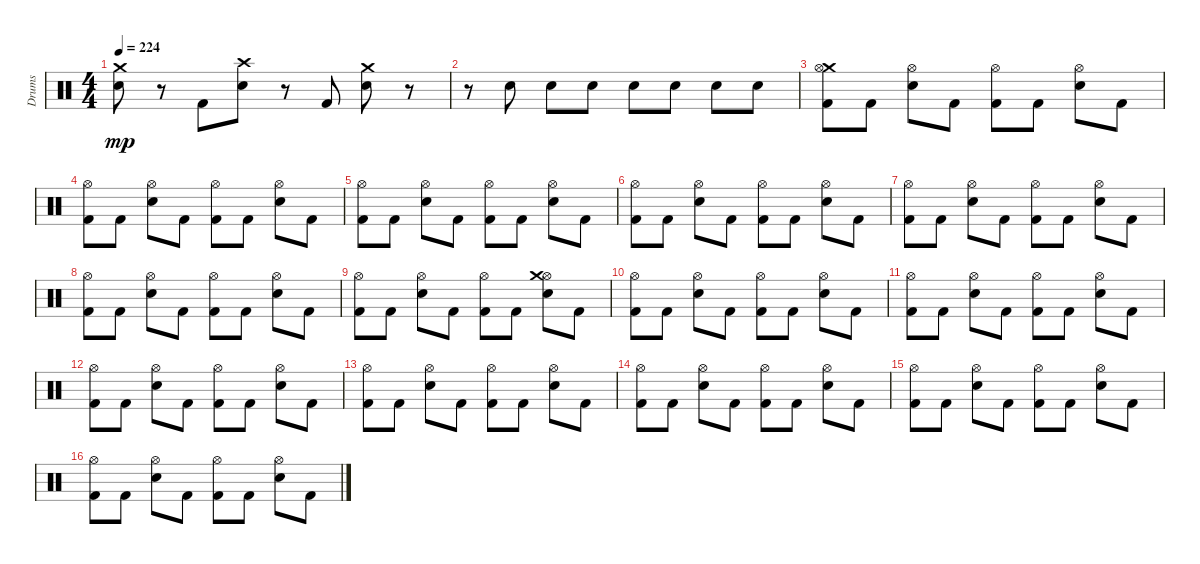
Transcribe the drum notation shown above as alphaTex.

\track ("Drums" "Drums") {instrument percussion}
\staff {score}
\articulation defaults
\ts (4 4)
\tempo 224
\clef neutral
\ks c
("Crash medium (hit)" "Electric Snare (hit)").8{dy mp} r.8 "Kick (hit) 2".8 ("Crash high (hit)" "Electric Snare (hit)").8 r.8 "Kick (hit) 2".8 ("Crash medium (hit)" "Electric Snare (hit)").8 r.8 |
r.8 "Electric Snare (hit)".8 "Electric Snare (hit)".8 "Electric Snare (hit)".8 "Electric Snare (hit)".8 "Electric Snare (hit)".8 "Electric Snare (hit)".8 "Electric Snare (hit)".8 |
("Kick (hit) 2" "Crash medium (hit)" "Hi-Hat (open)").8 "Kick (hit) 2".8 ("Hi-Hat (open)" "Electric Snare (hit)").8 "Kick (hit) 2".8 ("Hi-Hat (open)" "Kick (hit) 2").8 "Kick (hit) 2".8 ("Hi-Hat (open)" "Electric Snare (hit)").8 "Kick (hit) 2".8 |
("Hi-Hat (open)" "Kick (hit) 2").8 "Kick (hit) 2".8 ("Hi-Hat (open)" "Electric Snare (hit)").8 "Kick (hit) 2".8 ("Hi-Hat (open)" "Kick (hit) 2").8 "Kick (hit) 2".8 ("Electric Snare (hit)" "Hi-Hat (open)").8 "Kick (hit) 2".8 |
("Hi-Hat (open)" "Kick (hit) 2").8 "Kick (hit) 2".8 ("Hi-Hat (open)" "Electric Snare (hit)").8 "Kick (hit) 2".8 ("Kick (hit) 2" "Hi-Hat (open)").8 "Kick (hit) 2".8 ("Electric Snare (hit)" "Hi-Hat (open)").8 "Kick (hit) 2".8 |
("Kick (hit) 2" "Hi-Hat (open)").8 "Kick (hit) 2".8 ("Electric Snare (hit)" "Hi-Hat (open)").8 "Kick (hit) 2".8 ("Hi-Hat (open)" "Kick (hit) 2").8 "Kick (hit) 2".8 ("Hi-Hat (open)" "Electric Snare (hit)").8 "Kick (hit) 2".8 |
("Kick (hit) 2" "Hi-Hat (open)").8 "Kick (hit) 2".8 ("Electric Snare (hit)" "Hi-Hat (open)").8 "Kick (hit) 2".8 ("Kick (hit) 2" "Hi-Hat (open)").8 "Kick (hit) 2".8 ("Electric Snare (hit)" "Hi-Hat (open)").8 "Kick (hit) 2".8 |
("Hi-Hat (open)" "Kick (hit) 2").8 "Kick (hit) 2".8 ("Electric Snare (hit)" "Hi-Hat (open)").8 "Kick (hit) 2".8 ("Hi-Hat (open)" "Kick (hit) 2").8 "Kick (hit) 2".8 ("Hi-Hat (open)" "Electric Snare (hit)").8 "Kick (hit) 2".8 |
("Kick (hit) 2" "Hi-Hat (open)").8 "Kick (hit) 2".8 ("Electric Snare (hit)" "Hi-Hat (open)").8 "Kick (hit) 2".8 ("Hi-Hat (open)" "Kick (hit) 2").8 "Kick (hit) 2".8 ("Hi-Hat (open)" "Electric Snare (hit)" "Crash medium (hit)").8 "Kick (hit) 2".8 |
("Kick (hit) 2" "Hi-Hat (open)").8 "Kick (hit) 2".8 ("Electric Snare (hit)" "Hi-Hat (open)").8 "Kick (hit) 2".8 ("Hi-Hat (open)" "Kick (hit) 2").8 "Kick (hit) 2".8 ("Hi-Hat (open)" "Electric Snare (hit)").8 "Kick (hit) 2".8 |
("Kick (hit) 2" "Hi-Hat (open)").8 "Kick (hit) 2".8 ("Electric Snare (hit)" "Hi-Hat (open)").8 "Kick (hit) 2".8 ("Kick (hit) 2" "Hi-Hat (open)").8 "Kick (hit) 2".8 ("Electric Snare (hit)" "Hi-Hat (open)").8 "Kick (hit) 2".8 |
("Hi-Hat (open)" "Kick (hit) 2").8 "Kick (hit) 2".8 ("Electric Snare (hit)" "Hi-Hat (open)").8 "Kick (hit) 2".8 ("Hi-Hat (open)" "Kick (hit) 2").8 "Kick (hit) 2".8 ("Hi-Hat (open)" "Electric Snare (hit)").8 "Kick (hit) 2".8 |
("Kick (hit) 2" "Hi-Hat (open)").8 "Kick (hit) 2".8 ("Hi-Hat (open)" "Electric Snare (hit)").8 "Kick (hit) 2".8 ("Kick (hit) 2" "Hi-Hat (open)").8 "Kick (hit) 2".8 ("Electric Snare (hit)" "Hi-Hat (open)").8 "Kick (hit) 2".8 |
("Kick (hit) 2" "Hi-Hat (open)").8 "Kick (hit) 2".8 ("Hi-Hat (open)" "Electric Snare (hit)").8 "Kick (hit) 2".8 ("Kick (hit) 2" "Hi-Hat (open)").8 "Kick (hit) 2".8 ("Hi-Hat (open)" "Electric Snare (hit)").8 "Kick (hit) 2".8 |
("Kick (hit) 2" "Hi-Hat (open)").8 "Kick (hit) 2".8 ("Hi-Hat (open)" "Electric Snare (hit)").8 "Kick (hit) 2".8 ("Hi-Hat (open)" "Kick (hit) 2").8 "Kick (hit) 2".8 ("Electric Snare (hit)" "Hi-Hat (open)").8 "Kick (hit) 2".8 |
("Hi-Hat (open)" "Kick (hit) 2").8 "Kick (hit) 2".8 ("Hi-Hat (open)" "Electric Snare (hit)").8 "Kick (hit) 2".8 ("Hi-Hat (open)" "Kick (hit) 2").8 "Kick (hit) 2".8 ("Electric Snare (hit)" "Hi-Hat (open)").8 "Kick (hit) 2".8
